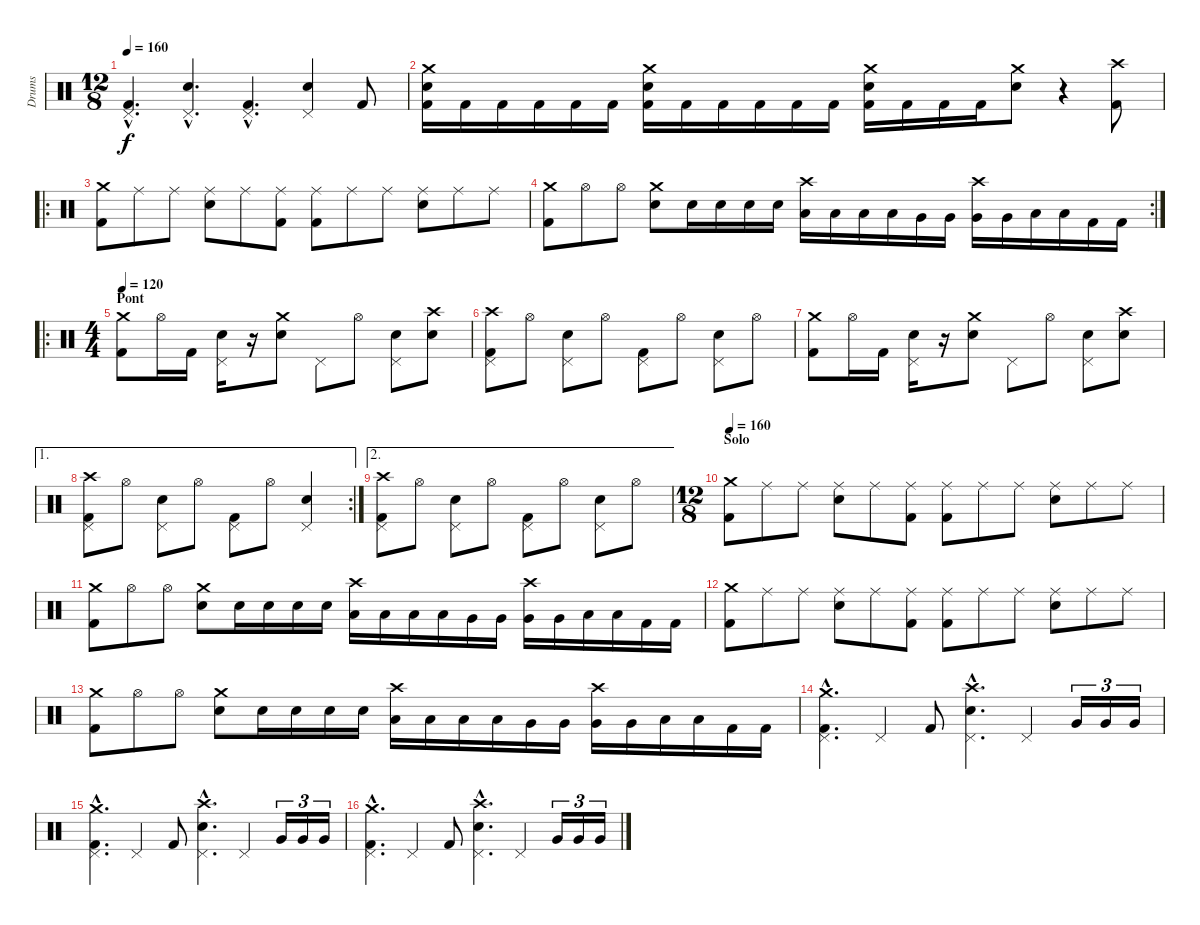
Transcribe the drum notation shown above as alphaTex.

\track ("Drums" "Drums") {instrument percussion}
\staff {score}
\articulation defaults
\ts (12 8)
\tempo 160
\clef neutral
\ks c
("Pedal Hi-Hat (hit)"{hac} "Kick (hit) 2"{hac}).4{d dy f} ("Pedal Hi-Hat (hit)"{hac} "Electric Snare (hit)"{hac}).4{d} ("Pedal Hi-Hat (hit)"{hac} "Kick (hit) 2"{hac}).4{d} ("Pedal Hi-Hat (hit)" "Electric Snare (hit)").4 "Kick (hit) 2".8 |
("Crash medium (hit)" "Electric Snare (hit)" "Kick (hit) 2").16 "Kick (hit) 2".16 "Kick (hit) 2".16 "Kick (hit) 2".16 "Kick (hit) 2".16 "Kick (hit) 2".16 ("Crash medium (hit)" "Electric Snare (hit)" "Kick (hit) 2").16 "Kick (hit) 2".16 "Kick (hit) 2".16 "Kick (hit) 2".16 "Kick (hit) 2".16 "Kick (hit) 2".16 ("Crash medium (hit)" "Electric Snare (hit)" "Kick (hit) 2").16 "Kick (hit) 2".16 "Kick (hit) 2".16 "Kick (hit) 2".16 ("Crash medium (hit)" "Electric Snare (hit)").8 r.4 ("Crash high (hit)" "Kick (hit) 2").8 |
\ro
("Crash medium (hit)" "Kick (hit) 2").8 "Ride (middle)".8 "Ride (middle)".8 ("Ride (middle)" "Electric Snare (hit)").8 "Ride (middle)".8 ("Ride (middle)" "Kick (hit) 2").8 ("Ride (middle)" "Kick (hit) 2").8 "Ride (middle)".8 "Ride (middle)".8 ("Ride (middle)" "Electric Snare (hit)").8 "Ride (middle)".8 "Ride (middle)".8 |
\rc 2
("Crash medium (hit)" "Kick (hit) 2").8 "Hi-Hat (open)".8 "Hi-Hat (open)".8 ("Crash medium (hit)" "Electric Snare (hit)").8 "Electric Snare (hit)".16 "Electric Snare (hit)".16 "Electric Snare (hit)".16 "Electric Snare (hit)".16 ("Crash high (hit)" "Low Tom (hit)").16 "Low Tom (hit)".16 "Low Tom (hit)".16 "Low Tom (hit)".16 "Very Low Tom (hit)".16 "Very Low Tom (hit)".16 ("Crash high (hit)" "Very Low Tom (hit)").16 "Very Low Tom (hit)".16 "Low Floor Tom (hit)".16 "Low Floor Tom (hit)".16 "Kick (hit) 2".16 "Kick (hit) 2".16 |
\ro
\ts (4 4)
\section ("" "Pont")
\tempo 120
("Crash medium (hit)" "Kick (hit) 2").8 "Hi-Hat (open)".16 "Kick (hit) 2".16 ("Pedal Hi-Hat (hit)" "Electric Snare (hit)").16 r.16 ("Crash medium (hit)" "Electric Snare (hit)").8 "Pedal Hi-Hat (hit)".8 "Hi-Hat (open)".8 ("Pedal Hi-Hat (hit)" "Electric Snare (hit)").8 ("Crash high (hit)" "Electric Snare (hit)").8 |
("Crash high (hit)" "Pedal Hi-Hat (hit)" "Kick (hit) 2").8 "Hi-Hat (open)".8 ("Pedal Hi-Hat (hit)" "Electric Snare (hit)").8 "Hi-Hat (open)".8 ("Pedal Hi-Hat (hit)" "Kick (hit) 2").8 "Hi-Hat (open)".8 ("Pedal Hi-Hat (hit)" "Electric Snare (hit)").8 "Hi-Hat (open)".8 |
("Crash medium (hit)" "Kick (hit) 2").8 "Hi-Hat (open)".16 "Kick (hit) 2".16 ("Pedal Hi-Hat (hit)" "Electric Snare (hit)").16 r.16 ("Crash medium (hit)" "Electric Snare (hit)").8 "Pedal Hi-Hat (hit)".8 "Hi-Hat (open)".8 ("Pedal Hi-Hat (hit)" "Electric Snare (hit)").8 ("Crash high (hit)" "Electric Snare (hit)").8 |
\ae 1
\rc 2
("Crash high (hit)" "Pedal Hi-Hat (hit)" "Kick (hit) 2").8 "Hi-Hat (open)".8 ("Pedal Hi-Hat (hit)" "Electric Snare (hit)").8 "Hi-Hat (open)".8 ("Pedal Hi-Hat (hit)" "Kick (hit) 2").8 "Hi-Hat (open)".8 ("Pedal Hi-Hat (hit)" "Electric Snare (hit)").4 |
\ae 2
("Crash high (hit)" "Pedal Hi-Hat (hit)" "Kick (hit) 2").8 "Hi-Hat (open)".8 ("Pedal Hi-Hat (hit)" "Electric Snare (hit)").8 "Hi-Hat (open)".8 ("Pedal Hi-Hat (hit)" "Kick (hit) 2").8 "Hi-Hat (open)".8 ("Pedal Hi-Hat (hit)" "Electric Snare (hit)").8 "Hi-Hat (open)".8 |
\ts (12 8)
\section ("" "Solo")
\tempo 160
("Crash medium (hit)" "Kick (hit) 2").8 "Ride (middle)".8 "Ride (middle)".8 ("Ride (middle)" "Electric Snare (hit)").8 "Ride (middle)".8 ("Ride (middle)" "Kick (hit) 2").8 ("Ride (middle)" "Kick (hit) 2").8 "Ride (middle)".8 "Ride (middle)".8 ("Ride (middle)" "Electric Snare (hit)").8 "Ride (middle)".8 "Ride (middle)".8 |
("Crash medium (hit)" "Kick (hit) 2").8 "Hi-Hat (open)".8 "Hi-Hat (open)".8 ("Crash medium (hit)" "Electric Snare (hit)").8 "Electric Snare (hit)".16 "Electric Snare (hit)".16 "Electric Snare (hit)".16 "Electric Snare (hit)".16 ("Crash high (hit)" "Low Tom (hit)").16 "Low Tom (hit)".16 "Low Tom (hit)".16 "Low Tom (hit)".16 "Very Low Tom (hit)".16 "Very Low Tom (hit)".16 ("Crash high (hit)" "Very Low Tom (hit)").16 "Very Low Tom (hit)".16 "Low Floor Tom (hit)".16 "Low Floor Tom (hit)".16 "Kick (hit) 2".16 "Kick (hit) 2".16 |
("Crash medium (hit)" "Kick (hit) 2").8 "Ride (middle)".8 "Ride (middle)".8 ("Ride (middle)" "Electric Snare (hit)").8 "Ride (middle)".8 ("Ride (middle)" "Kick (hit) 2").8 ("Ride (middle)" "Kick (hit) 2").8 "Ride (middle)".8 "Ride (middle)".8 ("Ride (middle)" "Electric Snare (hit)").8 "Ride (middle)".8 "Ride (middle)".8 |
("Crash medium (hit)" "Kick (hit) 2").8 "Hi-Hat (open)".8 "Hi-Hat (open)".8 ("Crash medium (hit)" "Electric Snare (hit)").8 "Electric Snare (hit)".16 "Electric Snare (hit)".16 "Electric Snare (hit)".16 "Electric Snare (hit)".16 ("Crash high (hit)" "Low Tom (hit)").16 "Low Tom (hit)".16 "Low Tom (hit)".16 "Low Tom (hit)".16 "Very Low Tom (hit)".16 "Very Low Tom (hit)".16 ("Crash high (hit)" "Very Low Tom (hit)").16 "Very Low Tom (hit)".16 "Low Floor Tom (hit)".16 "Low Floor Tom (hit)".16 "Kick (hit) 2".16 "Kick (hit) 2".16 |
("Crash medium (hit)"{hac} "Pedal Hi-Hat (hit)"{hac} "Kick (hit) 2"{hac}).4{d} "Pedal Hi-Hat (hit)".4 "Kick (hit) 2".8 ("Crash high (hit)"{hac} "Pedal Hi-Hat (hit)"{hac} "Electric Snare (hit)"{hac}).4{d} "Pedal Hi-Hat (hit)".4 "Very Low Tom (hit)".16{tu (3 2)} "Very Low Tom (hit)".16{tu (3 2)} "Very Low Tom (hit)".16{tu (3 2)} |
("Crash medium (hit)"{hac} "Pedal Hi-Hat (hit)"{hac} "Kick (hit) 2"{hac}).4{d} "Pedal Hi-Hat (hit)".4 "Kick (hit) 2".8 ("Crash high (hit)"{hac} "Pedal Hi-Hat (hit)"{hac} "Electric Snare (hit)"{hac}).4{d} "Pedal Hi-Hat (hit)".4 "Very Low Tom (hit)".16{tu (3 2)} "Very Low Tom (hit)".16{tu (3 2)} "Very Low Tom (hit)".16{tu (3 2)} |
("Crash medium (hit)"{hac} "Pedal Hi-Hat (hit)"{hac} "Kick (hit) 2"{hac}).4{d} "Pedal Hi-Hat (hit)".4 "Kick (hit) 2".8 ("Crash high (hit)"{hac} "Pedal Hi-Hat (hit)"{hac} "Electric Snare (hit)"{hac}).4{d} "Pedal Hi-Hat (hit)".4 "Very Low Tom (hit)".16{tu (3 2)} "Very Low Tom (hit)".16{tu (3 2)} "Very Low Tom (hit)".16{tu (3 2)}
